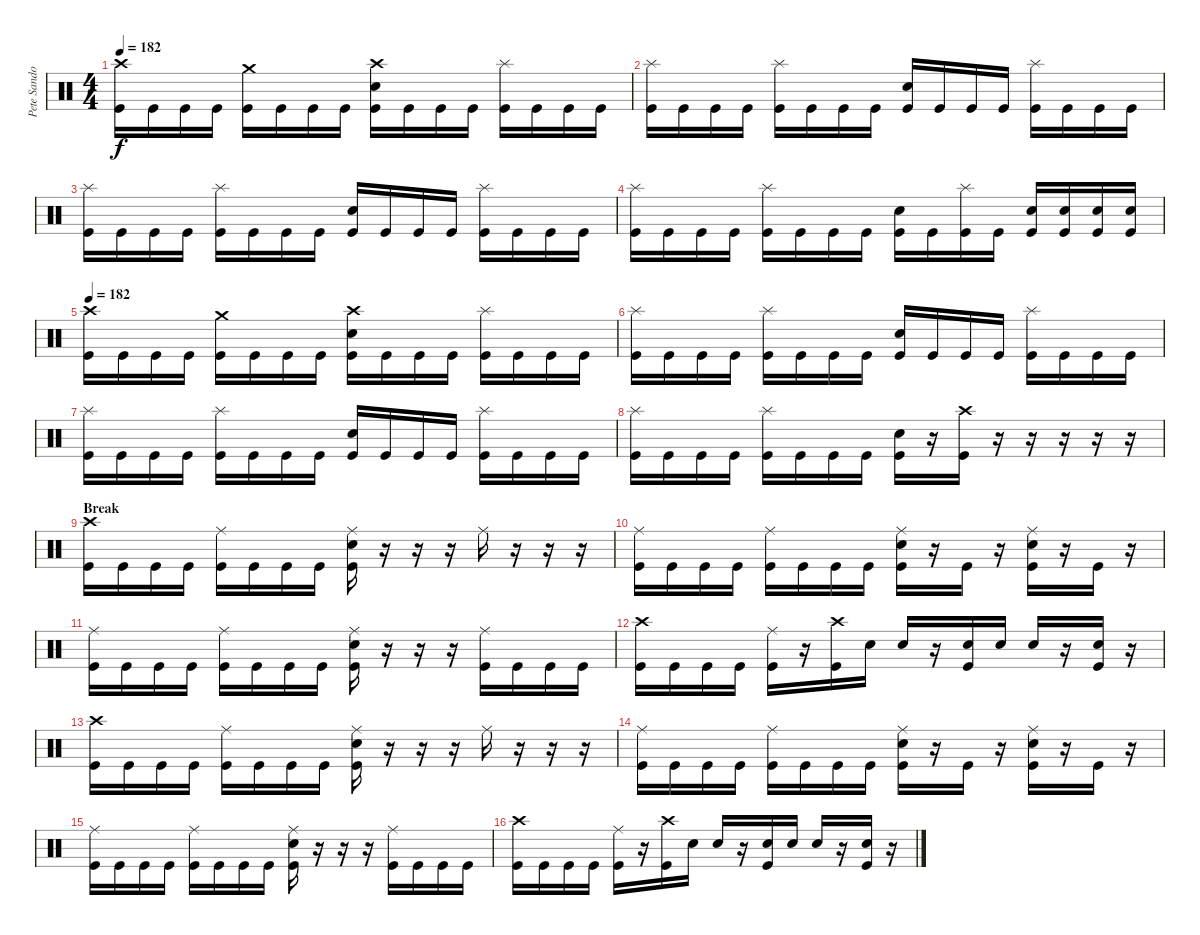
\track ("Pete Sandoval" "Pete Sando") {instrument percussion}
\staff {score}
\articulation defaults
\ts (4 4)
\tempo 182
\clef neutral
\ks c
("Crash high (hit)" "Kick (hit)").16{dy f} "Kick (hit)".16 "Kick (hit)".16 "Kick (hit)".16 ("Crash medium (hit)" "Kick (hit)").16 "Kick (hit)".16 "Kick (hit)".16 "Kick (hit)".16 ("Crash high (hit)" "Electric Snare (hit)" "Kick (hit)").16 "Kick (hit)".16 "Kick (hit)".16 "Kick (hit)".16 ("Splash (hit)" "Kick (hit)").16 "Kick (hit)".16 "Kick (hit)".16 "Kick (hit)".16 |
("Splash (hit)" "Kick (hit)").16 "Kick (hit)".16 "Kick (hit)".16 "Kick (hit)".16 ("Splash (hit)" "Kick (hit)").16 "Kick (hit)".16 "Kick (hit)".16 "Kick (hit)".16 ("Electric Snare (hit)" "Kick (hit)").16 "Kick (hit)".16 "Kick (hit)".16 "Kick (hit)".16 ("Splash (hit)" "Kick (hit)").16 "Kick (hit)".16 "Kick (hit)".16 "Kick (hit)".16 |
("Splash (hit)" "Kick (hit)").16 "Kick (hit)".16 "Kick (hit)".16 "Kick (hit)".16 ("Splash (hit)" "Kick (hit)").16 "Kick (hit)".16 "Kick (hit)".16 "Kick (hit)".16 ("Electric Snare (hit)" "Kick (hit)").16 "Kick (hit)".16 "Kick (hit)".16 "Kick (hit)".16 ("Splash (hit)" "Kick (hit)").16 "Kick (hit)".16 "Kick (hit)".16 "Kick (hit)".16 |
("Splash (hit)" "Kick (hit)").16 "Kick (hit)".16 "Kick (hit)".16 "Kick (hit)".16 ("Splash (hit)" "Kick (hit)").16 "Kick (hit)".16 "Kick (hit)".16 "Kick (hit)".16 ("Electric Snare (hit)" "Kick (hit)").16 "Kick (hit)".16 ("Splash (hit)" "Kick (hit)").16 "Kick (hit)".16 ("Electric Snare (hit)" "Kick (hit)").16 ("Electric Snare (hit)" "Kick (hit)").16 ("Electric Snare (hit)" "Kick (hit)").16 ("Electric Snare (hit)" "Kick (hit)").16 |
\tempo 182
("Crash high (hit)" "Kick (hit)").16 "Kick (hit)".16 "Kick (hit)".16 "Kick (hit)".16 ("Crash medium (hit)" "Kick (hit)").16 "Kick (hit)".16 "Kick (hit)".16 "Kick (hit)".16 ("Crash high (hit)" "Electric Snare (hit)" "Kick (hit)").16 "Kick (hit)".16 "Kick (hit)".16 "Kick (hit)".16 ("Splash (hit)" "Kick (hit)").16 "Kick (hit)".16 "Kick (hit)".16 "Kick (hit)".16 |
("Splash (hit)" "Kick (hit)").16 "Kick (hit)".16 "Kick (hit)".16 "Kick (hit)".16 ("Splash (hit)" "Kick (hit)").16 "Kick (hit)".16 "Kick (hit)".16 "Kick (hit)".16 ("Electric Snare (hit)" "Kick (hit)").16 "Kick (hit)".16 "Kick (hit)".16 "Kick (hit)".16 ("Splash (hit)" "Kick (hit)").16 "Kick (hit)".16 "Kick (hit)".16 "Kick (hit)".16 |
("Splash (hit)" "Kick (hit)").16 "Kick (hit)".16 "Kick (hit)".16 "Kick (hit)".16 ("Splash (hit)" "Kick (hit)").16 "Kick (hit)".16 "Kick (hit)".16 "Kick (hit)".16 ("Electric Snare (hit)" "Kick (hit)").16 "Kick (hit)".16 "Kick (hit)".16 "Kick (hit)".16 ("Splash (hit)" "Kick (hit)").16 "Kick (hit)".16 "Kick (hit)".16 "Kick (hit)".16 |
("Splash (hit)" "Kick (hit)").16 "Kick (hit)".16 "Kick (hit)".16 "Kick (hit)".16 ("Splash (hit)" "Kick (hit)").16 "Kick (hit)".16 "Kick (hit)".16 "Kick (hit)".16 ("Electric Snare (hit)" "Kick (hit)").16 r.16 ("Crash high (hit)" "Kick (hit)").16 r.16 r.16 r.16 r.16 r.16 |
\section ("" "Break")
("Crash high (hit)" "Kick (hit)").16 "Kick (hit)".16 "Kick (hit)".16 "Kick (hit)".16 ("Ride (middle)" "Kick (hit)").16 "Kick (hit)".16 "Kick (hit)".16 "Kick (hit)".16 ("Ride (middle)" "Electric Snare (hit)" "Kick (hit)").16 r.16 r.16 r.16 "Ride (middle)".16 r.16 r.16 r.16 |
("Ride (middle)" "Kick (hit)").16 "Kick (hit)".16 "Kick (hit)".16 "Kick (hit)".16 ("Ride (middle)" "Kick (hit)").16 "Kick (hit)".16 "Kick (hit)".16 "Kick (hit)".16 ("Ride (middle)" "Electric Snare (hit)" "Kick (hit)").16 r.16 "Kick (hit)".16 r.16 ("Ride (middle)" "Electric Snare (hit)" "Kick (hit)").16 r.16 "Kick (hit)".16 r.16 |
("Ride (middle)" "Kick (hit)").16 "Kick (hit)".16 "Kick (hit)".16 "Kick (hit)".16 ("Ride (middle)" "Kick (hit)").16 "Kick (hit)".16 "Kick (hit)".16 "Kick (hit)".16 ("Ride (middle)" "Electric Snare (hit)" "Kick (hit)").16 r.16 r.16 r.16 ("Ride (middle)" "Kick (hit)").16 "Kick (hit)".16 "Kick (hit)".16 "Kick (hit)".16 |
("Crash high (hit)" "Kick (hit)").16 "Kick (hit)".16 "Kick (hit)".16 "Kick (hit)".16 ("Ride (middle)" "Kick (hit)").16 r.16 ("Crash high (hit)" "Kick (hit)").16 "Electric Snare (hit)".16 "Electric Snare (hit)".16 r.16 ("Electric Snare (hit)" "Kick (hit)").16 "Electric Snare (hit)".16 "Electric Snare (hit)".16 r.16 ("Electric Snare (hit)" "Kick (hit)").16 r.16 |
("Crash high (hit)" "Kick (hit)").16 "Kick (hit)".16 "Kick (hit)".16 "Kick (hit)".16 ("Ride (middle)" "Kick (hit)").16 "Kick (hit)".16 "Kick (hit)".16 "Kick (hit)".16 ("Ride (middle)" "Electric Snare (hit)" "Kick (hit)").16 r.16 r.16 r.16 "Ride (middle)".16 r.16 r.16 r.16 |
("Ride (middle)" "Kick (hit)").16 "Kick (hit)".16 "Kick (hit)".16 "Kick (hit)".16 ("Ride (middle)" "Kick (hit)").16 "Kick (hit)".16 "Kick (hit)".16 "Kick (hit)".16 ("Ride (middle)" "Electric Snare (hit)" "Kick (hit)").16 r.16 "Kick (hit)".16 r.16 ("Ride (middle)" "Electric Snare (hit)" "Kick (hit)").16 r.16 "Kick (hit)".16 r.16 |
("Ride (middle)" "Kick (hit)").16 "Kick (hit)".16 "Kick (hit)".16 "Kick (hit)".16 ("Ride (middle)" "Kick (hit)").16 "Kick (hit)".16 "Kick (hit)".16 "Kick (hit)".16 ("Ride (middle)" "Electric Snare (hit)" "Kick (hit)").16 r.16 r.16 r.16 ("Ride (middle)" "Kick (hit)").16 "Kick (hit)".16 "Kick (hit)".16 "Kick (hit)".16 |
("Crash high (hit)" "Kick (hit)").16 "Kick (hit)".16 "Kick (hit)".16 "Kick (hit)".16 ("Ride (middle)" "Kick (hit)").16 r.16 ("Crash high (hit)" "Kick (hit)").16 "Electric Snare (hit)".16 "Electric Snare (hit)".16 r.16 ("Electric Snare (hit)" "Kick (hit)").16 "Electric Snare (hit)".16 "Electric Snare (hit)".16 r.16 ("Electric Snare (hit)" "Kick (hit)").16 r.16
